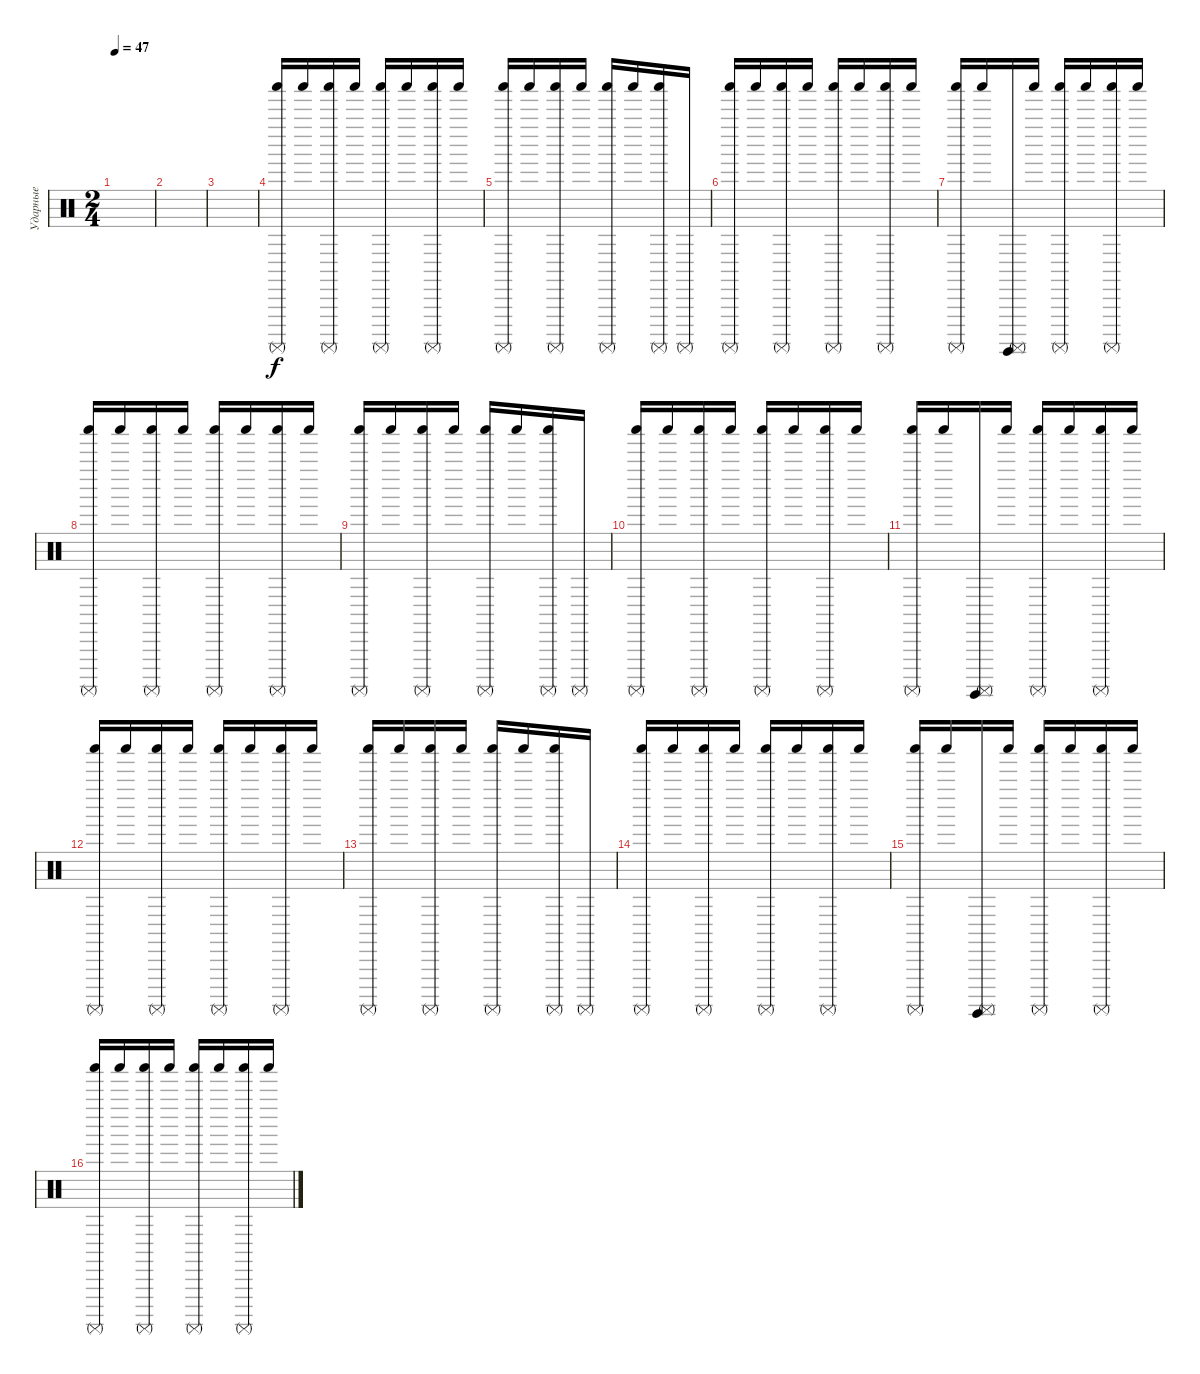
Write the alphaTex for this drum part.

\track ("Ударные" "Ударные") {instrument percussion}
\staff {score}
\articulation defaults
\ts (2 4)
\tempo 47
\clef neutral
\ks c
|
|
|
("Shaker (hit)" "Surdo (mute)").16 "Shaker (hit)".16 ("Shaker (hit)" "Surdo (mute)").16 "Shaker (hit)".16 ("Shaker (hit)" "Surdo (mute)").16 "Shaker (hit)".16 ("Shaker (hit)" "Surdo (mute)").16 "Shaker (hit)".16 |
("Shaker (hit)" "Surdo (mute)").16 "Shaker (hit)".16 ("Shaker (hit)" "Surdo (mute)").16 "Shaker (hit)".16 ("Shaker (hit)" "Surdo (mute)").16 "Shaker (hit)".16 ("Shaker (hit)" "Surdo (mute)").16 "Surdo (mute)".16 |
("Shaker (hit)" "Surdo (mute)").16 "Shaker (hit)".16 ("Shaker (hit)" "Surdo (mute)").16 "Shaker (hit)".16 ("Shaker (hit)" "Surdo (mute)").16 "Shaker (hit)".16 ("Shaker (hit)" "Surdo (mute)").16 "Shaker (hit)".16 |
("Shaker (hit)" "Surdo (mute)").16 "Shaker (hit)".16 ("Surdo (mute)" "Surdo (hit)").16 "Shaker (hit)".16 ("Shaker (hit)" "Surdo (mute)").16 "Shaker (hit)".16 ("Shaker (hit)" "Surdo (mute)").16 "Shaker (hit)".16 |
("Shaker (hit)" "Surdo (mute)").16 "Shaker (hit)".16 ("Shaker (hit)" "Surdo (mute)").16 "Shaker (hit)".16 ("Shaker (hit)" "Surdo (mute)").16 "Shaker (hit)".16 ("Shaker (hit)" "Surdo (mute)").16 "Shaker (hit)".16 |
("Shaker (hit)" "Surdo (mute)").16 "Shaker (hit)".16 ("Shaker (hit)" "Surdo (mute)").16 "Shaker (hit)".16 ("Shaker (hit)" "Surdo (mute)").16 "Shaker (hit)".16 ("Shaker (hit)" "Surdo (mute)").16 "Surdo (mute)".16 |
("Shaker (hit)" "Surdo (mute)").16 "Shaker (hit)".16 ("Shaker (hit)" "Surdo (mute)").16 "Shaker (hit)".16 ("Shaker (hit)" "Surdo (mute)").16 "Shaker (hit)".16 ("Shaker (hit)" "Surdo (mute)").16 "Shaker (hit)".16 |
("Shaker (hit)" "Surdo (mute)").16 "Shaker (hit)".16 ("Surdo (mute)" "Surdo (hit)").16 "Shaker (hit)".16 ("Shaker (hit)" "Surdo (mute)").16 "Shaker (hit)".16 ("Shaker (hit)" "Surdo (mute)").16 "Shaker (hit)".16 |
("Shaker (hit)" "Surdo (mute)").16 "Shaker (hit)".16 ("Shaker (hit)" "Surdo (mute)").16 "Shaker (hit)".16 ("Shaker (hit)" "Surdo (mute)").16 "Shaker (hit)".16 ("Shaker (hit)" "Surdo (mute)").16 "Shaker (hit)".16 |
("Shaker (hit)" "Surdo (mute)").16 "Shaker (hit)".16 ("Shaker (hit)" "Surdo (mute)").16 "Shaker (hit)".16 ("Shaker (hit)" "Surdo (mute)").16 "Shaker (hit)".16 ("Shaker (hit)" "Surdo (mute)").16 "Surdo (mute)".16 |
("Shaker (hit)" "Surdo (mute)").16 "Shaker (hit)".16 ("Shaker (hit)" "Surdo (mute)").16 "Shaker (hit)".16 ("Shaker (hit)" "Surdo (mute)").16 "Shaker (hit)".16 ("Shaker (hit)" "Surdo (mute)").16 "Shaker (hit)".16 |
("Shaker (hit)" "Surdo (mute)").16 "Shaker (hit)".16 ("Surdo (mute)" "Surdo (hit)").16 "Shaker (hit)".16 ("Shaker (hit)" "Surdo (mute)").16 "Shaker (hit)".16 ("Shaker (hit)" "Surdo (mute)").16 "Shaker (hit)".16 |
("Shaker (hit)" "Surdo (mute)").16 "Shaker (hit)".16 ("Shaker (hit)" "Surdo (mute)").16 "Shaker (hit)".16 ("Shaker (hit)" "Surdo (mute)").16 "Shaker (hit)".16 ("Shaker (hit)" "Surdo (mute)").16 "Shaker (hit)".16
